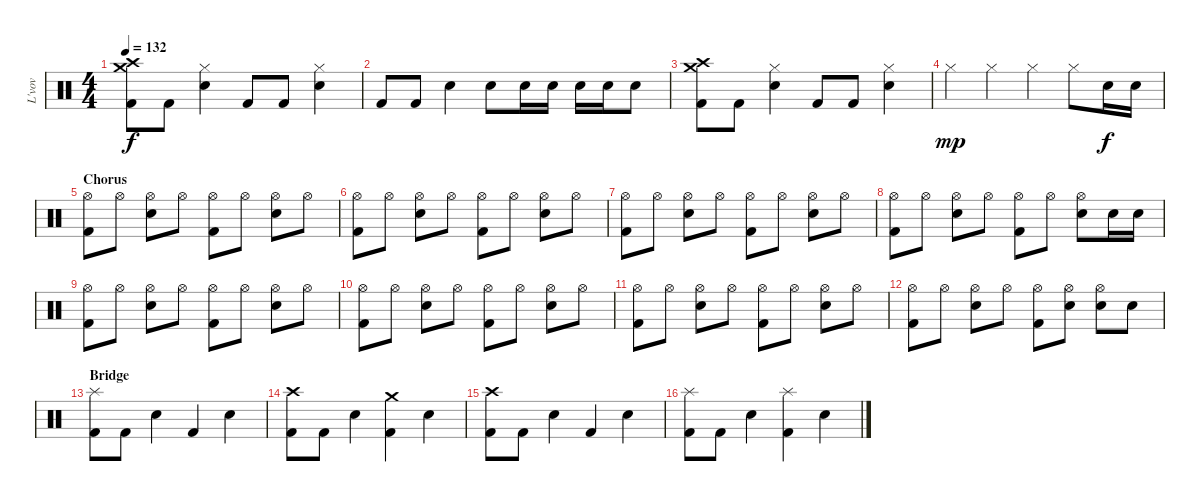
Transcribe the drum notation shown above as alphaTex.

\track ("L'vov" "L'vov") {instrument percussion}
\staff {score}
\articulation defaults
\ts (4 4)
\tempo 132
\clef neutral
\ks c
("Kick (hit) 2" "Crash high (hit)" "Crash medium (hit)").8{dy f} "Kick (hit) 2".8 ("Snare (hit) 2" "Hi-Hat (closed)").4 "Kick (hit) 2".8 "Kick (hit) 2".8 ("Snare (hit) 2" "Hi-Hat (closed)").4 |
"Kick (hit) 2".8 "Kick (hit) 2".8 "Snare (hit) 2".4 "Snare (hit) 2".8 "Snare (hit) 2".16 "Snare (hit) 2".16 "Snare (hit) 2".16 "Snare (hit) 2".16 "Snare (hit) 2".8 |
("Kick (hit) 2" "Crash high (hit)" "Crash medium (hit)").8 "Kick (hit) 2".8 ("Snare (hit) 2" "Hi-Hat (closed)").4 "Kick (hit) 2".8 "Kick (hit) 2".8 ("Snare (hit) 2" "Hi-Hat (closed)").4 |
"Hi-Hat (closed)".4{dy mp} "Hi-Hat (closed)".4 "Hi-Hat (closed)".4 "Hi-Hat (closed)".8 "Snare (hit) 2".16{dy f} "Snare (hit) 2".16 |
\section ("" "Chorus")
("Hi-Hat (open)" "Kick (hit) 2").8 "Hi-Hat (open)".8 ("Hi-Hat (open)" "Snare (hit) 2").8 "Hi-Hat (open)".8 ("Hi-Hat (open)" "Kick (hit) 2").8 "Hi-Hat (open)".8 ("Hi-Hat (open)" "Snare (hit) 2").8 "Hi-Hat (open)".8 |
("Hi-Hat (open)" "Kick (hit) 2").8 "Hi-Hat (open)".8 ("Hi-Hat (open)" "Snare (hit) 2").8 "Hi-Hat (open)".8 ("Hi-Hat (open)" "Kick (hit) 2").8 "Hi-Hat (open)".8 ("Hi-Hat (open)" "Snare (hit) 2").8 "Hi-Hat (open)".8 |
("Hi-Hat (open)" "Kick (hit) 2").8 "Hi-Hat (open)".8 ("Hi-Hat (open)" "Snare (hit) 2").8 "Hi-Hat (open)".8 ("Hi-Hat (open)" "Kick (hit) 2").8 "Hi-Hat (open)".8 ("Hi-Hat (open)" "Snare (hit) 2").8 "Hi-Hat (open)".8 |
("Hi-Hat (open)" "Kick (hit) 2").8 "Hi-Hat (open)".8 ("Hi-Hat (open)" "Snare (hit) 2").8 "Hi-Hat (open)".8 ("Hi-Hat (open)" "Kick (hit) 2").8 "Hi-Hat (open)".8 ("Hi-Hat (open)" "Snare (hit) 2").8 "Snare (hit) 2".16 "Snare (hit) 2".16 |
("Hi-Hat (open)" "Kick (hit) 2").8 "Hi-Hat (open)".8 ("Hi-Hat (open)" "Snare (hit) 2").8 "Hi-Hat (open)".8 ("Hi-Hat (open)" "Kick (hit) 2").8 "Hi-Hat (open)".8 ("Hi-Hat (open)" "Snare (hit) 2").8 "Hi-Hat (open)".8 |
("Hi-Hat (open)" "Kick (hit) 2").8 "Hi-Hat (open)".8 ("Hi-Hat (open)" "Snare (hit) 2").8 "Hi-Hat (open)".8 ("Hi-Hat (open)" "Kick (hit) 2").8 "Hi-Hat (open)".8 ("Hi-Hat (open)" "Snare (hit) 2").8 "Hi-Hat (open)".8 |
("Hi-Hat (open)" "Kick (hit) 2").8 "Hi-Hat (open)".8 ("Hi-Hat (open)" "Snare (hit) 2").8 "Hi-Hat (open)".8 ("Hi-Hat (open)" "Kick (hit) 2").8 "Hi-Hat (open)".8 ("Hi-Hat (open)" "Snare (hit) 2").8 "Hi-Hat (open)".8 |
("Hi-Hat (open)" "Kick (hit) 2").8 "Hi-Hat (open)".8 ("Hi-Hat (open)" "Snare (hit) 2").8 "Hi-Hat (open)".8 ("Hi-Hat (open)" "Kick (hit) 2").8 ("Hi-Hat (open)" "Snare (hit) 2").8 ("Hi-Hat (open)" "Snare (hit) 2").8 "Snare (hit) 2".8 |
\section ("" "Bridge")
("Kick (hit) 2" "Splash (hit)").8 "Kick (hit) 2".8 "Snare (hit) 2".4 "Kick (hit) 2".4 "Snare (hit) 2".4 |
("Kick (hit) 2" "Crash high (hit)").8 "Kick (hit) 2".8 "Snare (hit) 2".4 ("Kick (hit) 2" "Crash medium (hit)").4 "Snare (hit) 2".4 |
("Kick (hit) 2" "Crash high (hit)").8 "Kick (hit) 2".8 "Snare (hit) 2".4 "Kick (hit) 2".4 "Snare (hit) 2".4 |
("Kick (hit) 2" "Splash (hit)").8 "Kick (hit) 2".8 "Snare (hit) 2".4 ("Kick (hit) 2" "Splash (hit)").4 "Snare (hit) 2".4
